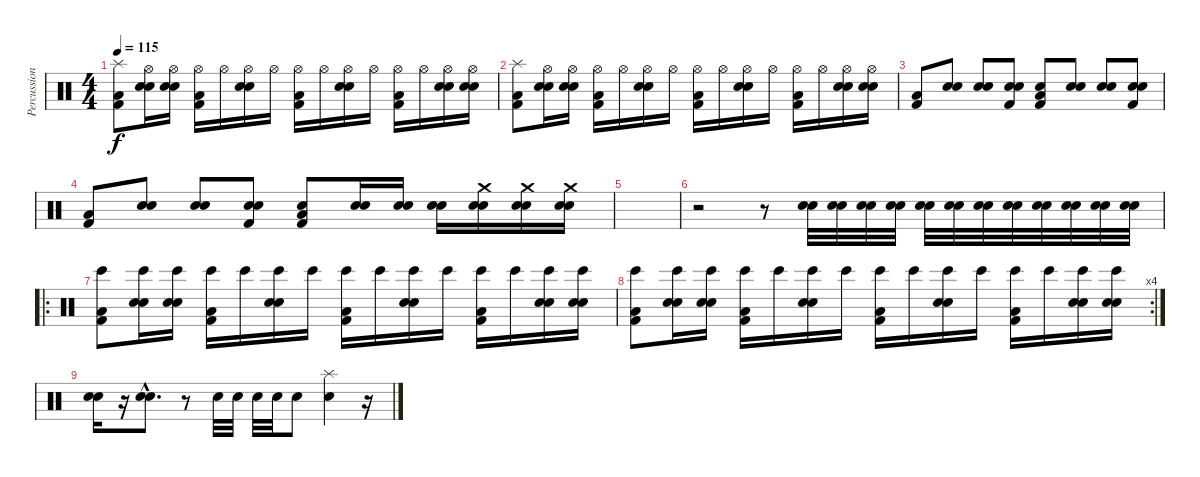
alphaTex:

\track ("Percussions" "Percussion") {instrument percussion}
\staff {score}
\articulation defaults
\ts (4 4)
\tempo 115
\clef neutral
\ks c
("Kick (hit) 2" "Low Floor Tom (hit)" "Splash (hit)").8{dy f} ("Hi-Hat (open)" "Snare (hit) 2" "Electric Snare (hit)").16 ("Hi-Hat (open)" "Snare (hit) 2" "Electric Snare (hit)").16 ("Hi-Hat (open)" "Low Floor Tom (hit)" "Kick (hit) 2").16 "Hi-Hat (open)".16 ("Hi-Hat (open)" "Electric Snare (hit)" "Snare (hit) 2").16 "Hi-Hat (open)".16 ("Hi-Hat (open)" "Low Floor Tom (hit)" "Kick (hit) 2").16 "Hi-Hat (open)".16 ("Hi-Hat (open)" "Snare (hit) 2" "Electric Snare (hit)").16 "Hi-Hat (open)".16 ("Hi-Hat (open)" "Low Floor Tom (hit)" "Kick (hit) 2").16 "Hi-Hat (open)".16 ("Hi-Hat (open)" "Snare (hit) 2" "Electric Snare (hit)").16 ("Hi-Hat (open)" "Snare (hit) 2" "Electric Snare (hit)").16 |
("Kick (hit) 2" "Low Floor Tom (hit)" "Splash (hit)").8 ("Hi-Hat (open)" "Snare (hit) 2" "Electric Snare (hit)").16 ("Hi-Hat (open)" "Snare (hit) 2" "Electric Snare (hit)").16 ("Hi-Hat (open)" "Low Floor Tom (hit)" "Kick (hit) 2").16 "Hi-Hat (open)".16 ("Hi-Hat (open)" "Electric Snare (hit)" "Snare (hit) 2").16 "Hi-Hat (open)".16 ("Hi-Hat (open)" "Low Floor Tom (hit)" "Kick (hit) 2").16 "Hi-Hat (open)".16 ("Hi-Hat (open)" "Snare (hit) 2" "Electric Snare (hit)").16 "Hi-Hat (open)".16 ("Hi-Hat (open)" "Low Floor Tom (hit)" "Kick (hit) 2").16 "Hi-Hat (open)".16 ("Hi-Hat (open)" "Snare (hit) 2" "Electric Snare (hit)").16 ("Hi-Hat (open)" "Snare (hit) 2" "Electric Snare (hit)").16 |
("Low Floor Tom (hit)" "Kick (hit) 2").8 ("Snare (hit) 2" "Electric Snare (hit)").8 ("Snare (hit) 2" "Electric Snare (hit)").8 ("Snare (hit) 2" "Electric Snare (hit)" "Kick (hit) 2").8 ("Snare (hit) 2" "Kick (hit) 2" "Low Floor Tom (hit)").8 ("Snare (hit) 2" "Electric Snare (hit)").8 ("Snare (hit) 2" "Electric Snare (hit)").8 ("Snare (hit) 2" "Electric Snare (hit)" "Kick (hit) 2").8 |
("Low Floor Tom (hit)" "Kick (hit) 2").8 ("Snare (hit) 2" "Electric Snare (hit)").8 ("Snare (hit) 2" "Electric Snare (hit)").8 ("Snare (hit) 2" "Electric Snare (hit)" "Kick (hit) 2").8 ("Snare (hit) 2" "Kick (hit) 2" "Low Floor Tom (hit)").8 ("Snare (hit) 2" "Electric Snare (hit)").16 ("Snare (hit) 2" "Electric Snare (hit)").16 ("Snare (hit) 2" "Electric Snare (hit)").16 ("Crash medium (hit)" "Snare (hit) 2" "Electric Snare (hit)").16 ("Crash medium (hit)" "Snare (hit) 2" "Electric Snare (hit)").16 ("Crash medium (hit)" "Snare (hit) 2" "Electric Snare (hit)").16 |
|
r.2 r.8 ("Electric Snare (hit)" "Snare (hit) 2").32 ("Electric Snare (hit)" "Snare (hit) 2").32 ("Electric Snare (hit)" "Snare (hit) 2").32 ("Electric Snare (hit)" "Snare (hit) 2").32 ("Electric Snare (hit)" "Snare (hit) 2").32 ("Electric Snare (hit)" "Snare (hit) 2").32 ("Electric Snare (hit)" "Snare (hit) 2").32 ("Electric Snare (hit)" "Snare (hit) 2").32 ("Electric Snare (hit)" "Snare (hit) 2").32 ("Electric Snare (hit)" "Snare (hit) 2").32 ("Electric Snare (hit)" "Snare (hit) 2").32 ("Electric Snare (hit)" "Snare (hit) 2").32 |
\ro
("Kick (hit) 2" "Low Floor Tom (hit)" "Bongo High (hit)").8 ("Bongo High (hit)" "Snare (hit) 2" "Electric Snare (hit)").16 ("Bongo High (hit)" "Snare (hit) 2" "Electric Snare (hit)").16 ("Bongo High (hit)" "Low Floor Tom (hit)" "Kick (hit) 2").16 "Bongo High (hit)".16 ("Bongo High (hit)" "Electric Snare (hit)" "Snare (hit) 2").16 "Bongo High (hit)".16 ("Bongo High (hit)" "Low Floor Tom (hit)" "Kick (hit) 2").16 "Bongo High (hit)".16 ("Bongo High (hit)" "Snare (hit) 2" "Electric Snare (hit)").16 "Bongo High (hit)".16 ("Bongo High (hit)" "Low Floor Tom (hit)" "Kick (hit) 2").16 "Bongo High (hit)".16 ("Bongo High (hit)" "Snare (hit) 2" "Electric Snare (hit)").16 ("Bongo High (hit)" "Snare (hit) 2" "Electric Snare (hit)").16 |
\rc 4
("Kick (hit) 2" "Low Floor Tom (hit)" "Bongo High (hit)").8 ("Bongo High (hit)" "Snare (hit) 2" "Electric Snare (hit)").16 ("Bongo High (hit)" "Snare (hit) 2" "Electric Snare (hit)").16 ("Bongo High (hit)" "Low Floor Tom (hit)" "Kick (hit) 2").16 "Bongo High (hit)".16 ("Bongo High (hit)" "Electric Snare (hit)" "Snare (hit) 2").16 "Bongo High (hit)".16 ("Bongo High (hit)" "Low Floor Tom (hit)" "Kick (hit) 2").16 "Bongo High (hit)".16 ("Bongo High (hit)" "Snare (hit) 2" "Electric Snare (hit)").16 "Bongo High (hit)".16 ("Bongo High (hit)" "Low Floor Tom (hit)" "Kick (hit) 2").16 "Bongo High (hit)".16 ("Bongo High (hit)" "Snare (hit) 2" "Electric Snare (hit)").16 ("Bongo High (hit)" "Snare (hit) 2" "Electric Snare (hit)").16 |
("Snare (hit) 2" "Electric Snare (hit)").16 r.16 ("Snare (hit) 2"{hac} "Electric Snare (hit)"{hac}).8{d} r.8 "Snare (hit) 2".32 "Snare (hit) 2".32 "Snare (hit) 2".32 "Snare (hit) 2".32 "Snare (hit) 2".8 ("Splash (hit)" "Snare (hit) 2").4 r.16
